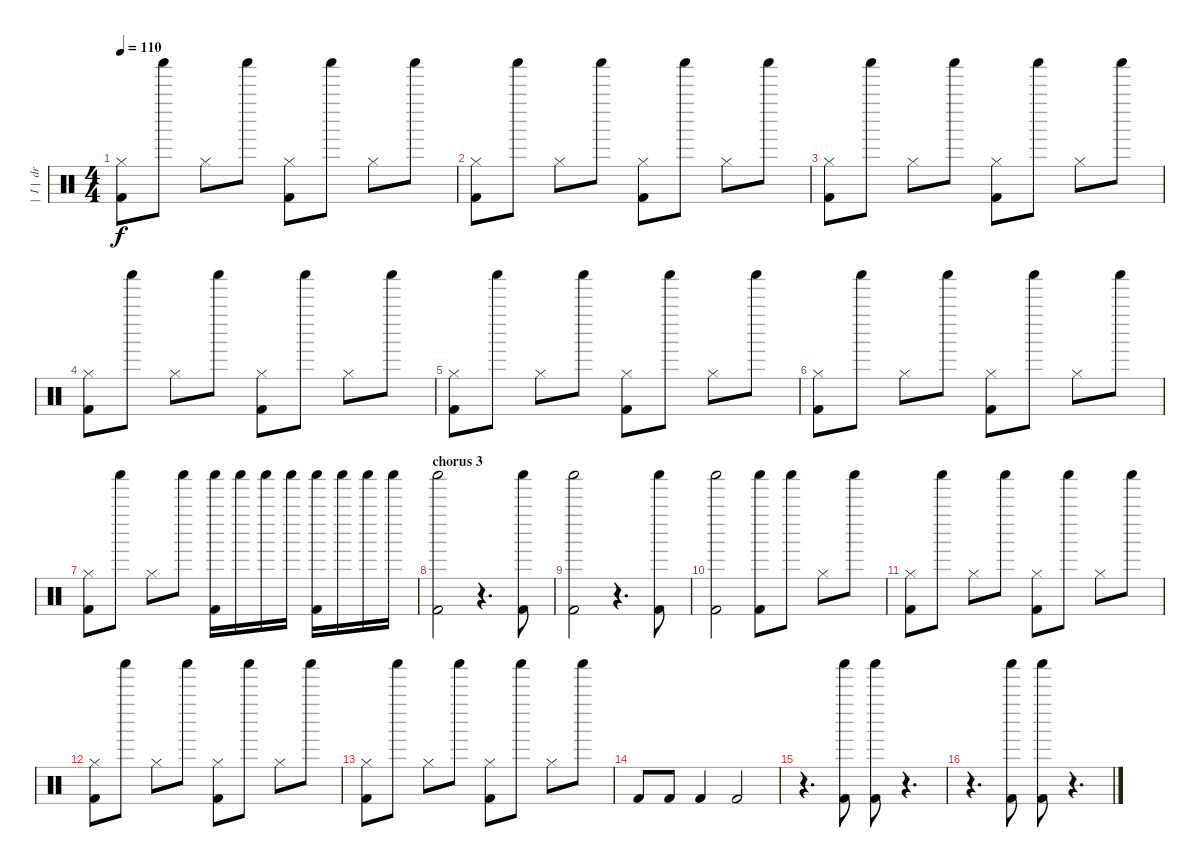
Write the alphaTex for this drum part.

\track ("|  I |  drum" "|  I |  dr") {instrument percussion}
\staff {score}
\articulation defaults
\ts (4 4)
\tempo 110
\clef neutral
\ks c
("Kick (hit) 2" "Hi-Hat (closed)").8{dy f} "Shaker (hit)".8 "Hi-Hat (closed)".8 "Shaker (hit)".8 ("Kick (hit) 2" "Hi-Hat (closed)").8 "Shaker (hit)".8 "Hi-Hat (closed)".8 "Shaker (hit)".8 |
("Kick (hit) 2" "Hi-Hat (closed)").8 "Shaker (hit)".8 "Hi-Hat (closed)".8 "Shaker (hit)".8 ("Kick (hit) 2" "Hi-Hat (closed)").8 "Shaker (hit)".8 "Hi-Hat (closed)".8 "Shaker (hit)".8 |
("Kick (hit) 2" "Hi-Hat (closed)").8 "Shaker (hit)".8 "Hi-Hat (closed)".8 "Shaker (hit)".8 ("Kick (hit) 2" "Hi-Hat (closed)").8 "Shaker (hit)".8 "Hi-Hat (closed)".8 "Shaker (hit)".8 |
("Kick (hit) 2" "Hi-Hat (closed)").8 "Shaker (hit)".8 "Hi-Hat (closed)".8 "Shaker (hit)".8 ("Kick (hit) 2" "Hi-Hat (closed)").8 "Shaker (hit)".8 "Hi-Hat (closed)".8 "Shaker (hit)".8 |
("Kick (hit) 2" "Hi-Hat (closed)").8 "Shaker (hit)".8 "Hi-Hat (closed)".8 "Shaker (hit)".8 ("Kick (hit) 2" "Hi-Hat (closed)").8 "Shaker (hit)".8 "Hi-Hat (closed)".8 "Shaker (hit)".8 |
("Kick (hit) 2" "Hi-Hat (closed)").8 "Shaker (hit)".8 "Hi-Hat (closed)".8 "Shaker (hit)".8 ("Kick (hit) 2" "Hi-Hat (closed)").8 "Shaker (hit)".8 "Hi-Hat (closed)".8 "Shaker (hit)".8 |
("Kick (hit) 2" "Hi-Hat (closed)").8 "Shaker (hit)".8 "Hi-Hat (closed)".8 "Shaker (hit)".8 ("Kick (hit) 2" "Shaker (hit)").16 "Shaker (hit)".16 "Shaker (hit)".16 "Shaker (hit)".16 ("Kick (hit) 2" "Shaker (hit)").16 "Shaker (hit)".16 "Shaker (hit)".16 "Shaker (hit)".16 |
\section ("" "chorus 3")
("Kick (hit) 2" "Shaker (hit)").2 r.4{d} ("Kick (hit) 2" "Shaker (hit)").8 |
("Kick (hit) 2" "Shaker (hit)").2 r.4{d} ("Kick (hit) 2" "Shaker (hit)").8 |
("Kick (hit) 2" "Shaker (hit)").2 ("Kick (hit) 2" "Shaker (hit)").8 "Shaker (hit)".8 "Hi-Hat (closed)".8 "Shaker (hit)".8 |
("Kick (hit) 2" "Hi-Hat (closed)").8 "Shaker (hit)".8 "Hi-Hat (closed)".8 "Shaker (hit)".8 ("Kick (hit) 2" "Hi-Hat (closed)").8 "Shaker (hit)".8 "Hi-Hat (closed)".8 "Shaker (hit)".8 |
("Kick (hit) 2" "Hi-Hat (closed)").8 "Shaker (hit)".8 "Hi-Hat (closed)".8 "Shaker (hit)".8 ("Kick (hit) 2" "Hi-Hat (closed)").8 "Shaker (hit)".8 "Hi-Hat (closed)".8 "Shaker (hit)".8 |
("Kick (hit) 2" "Hi-Hat (closed)").8 "Shaker (hit)".8 "Hi-Hat (closed)".8 "Shaker (hit)".8 ("Kick (hit) 2" "Hi-Hat (closed)").8 "Shaker (hit)".8 "Hi-Hat (closed)".8 "Shaker (hit)".8 |
"Kick (hit) 2".8 "Kick (hit) 2".8 "Kick (hit) 2".4 "Kick (hit) 2".2 |
r.4{d} ("Kick (hit) 2" "Shaker (hit)").8 ("Kick (hit) 2" "Shaker (hit)").8 r.4{d} |
r.4{d} ("Kick (hit) 2" "Shaker (hit)").8 ("Kick (hit) 2" "Shaker (hit)").8 r.4{d}
